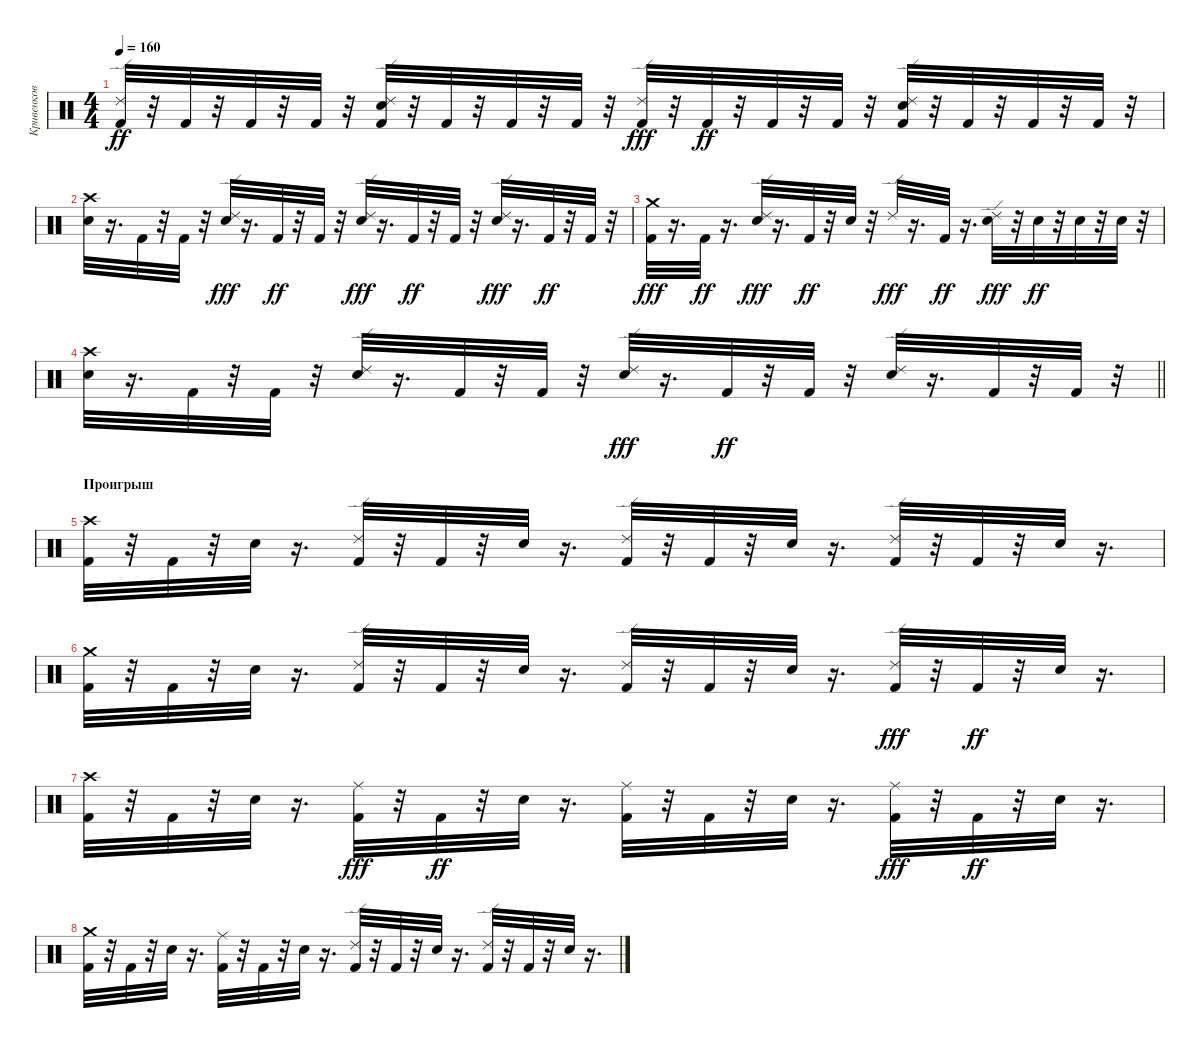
\track ("Кривенков" "Кривенков") {instrument percussion}
\staff {score}
\articulation defaults
\ts (4 4)
\tempo 160
\clef neutral
\ks c
("Ride (edge) 2" "Kick (hit) 2").32{dy ff} r.32 "Kick (hit) 2".32 r.32 "Kick (hit) 2".32 r.32 "Kick (hit) 2".32 r.32 ("Kick (hit) 2" "Ride (edge) 2" "Electric Snare (hit)").32 r.32 "Kick (hit) 2".32 r.32 "Kick (hit) 2".32 r.32 "Kick (hit) 2".32 r.32 ("Kick (hit) 2" "Ride (edge) 2").32{dy fff} r.32 "Kick (hit) 2".32{dy ff} r.32 "Kick (hit) 2".32 r.32 "Kick (hit) 2".32 r.32 ("Kick (hit) 2" "Ride (edge) 2" "Electric Snare (hit)").32 r.32 "Kick (hit) 2".32 r.32 "Kick (hit) 2".32 r.32 "Kick (hit) 2".32 r.32 |
("Crash high (hit)" "Electric Snare (hit)").32 r.16{d} "Kick (hit) 2".32 r.32 "Kick (hit) 2".32 r.32 ("Electric Snare (hit)" "Ride (edge) 2").32{dy fff} r.16{d} "Kick (hit) 2".32{dy ff} r.32 "Kick (hit) 2".32 r.32 ("Electric Snare (hit)" "Ride (edge) 2").32{dy fff} r.16{d} "Kick (hit) 2".32{dy ff} r.32 "Kick (hit) 2".32 r.32 ("Electric Snare (hit)" "Ride (edge) 2").32{dy fff} r.16{d} "Kick (hit) 2".32{dy ff} r.32 "Kick (hit) 2".32 r.32 |
("Crash medium (hit)" "Kick (hit) 2").32{dy fff} r.16{d} "Kick (hit) 2".32{dy ff} r.16{d} ("Electric Snare (hit)" "Ride (edge) 2").32{dy fff} r.16{d} "Kick (hit) 2".32{dy ff} r.32 "Electric Snare (hit)".32 r.32 "Ride (edge) 2".32{dy fff} r.16{d} "Kick (hit) 2".32{dy ff} r.16{d} ("Electric Snare (hit)" "Ride (edge) 2").32{dy fff} r.32 "Electric Snare (hit)".32{dy ff} r.32 "Electric Snare (hit)".32 r.32 "Electric Snare (hit)".32 r.32 |
\barLineRight lightlight
("Electric Snare (hit)" "Crash high (hit)").32 r.16{d} "Kick (hit) 2".32 r.32 "Kick (hit) 2".32 r.32 ("Ride (edge) 2" "Electric Snare (hit)").32 r.16{d} "Kick (hit) 2".32 r.32 "Kick (hit) 2".32 r.32 ("Electric Snare (hit)" "Ride (edge) 2").32{dy fff} r.16{d} "Kick (hit) 2".32{dy ff} r.32 "Kick (hit) 2".32 r.32 ("Ride (edge) 2" "Electric Snare (hit)").32 r.16{d} "Kick (hit) 2".32 r.32 "Kick (hit) 2".32 r.32 |
\section ("" "Проигрыш")
("Crash high (hit)" "Kick (hit) 2").32 r.32 "Kick (hit) 2".32 r.32 "Electric Snare (hit)".32 r.16{d} ("Ride (edge) 2" "Kick (hit) 2").32 r.32 "Kick (hit) 2".32 r.32 "Electric Snare (hit)".32 r.16{d} ("Ride (edge) 2" "Kick (hit) 2").32 r.32 "Kick (hit) 2".32 r.32 "Electric Snare (hit)".32 r.16{d} ("Ride (edge) 2" "Kick (hit) 2").32 r.32 "Kick (hit) 2".32 r.32 "Electric Snare (hit)".32 r.16{d} |
("Kick (hit) 2" "Crash medium (hit)").32 r.32 "Kick (hit) 2".32 r.32 "Electric Snare (hit)".32 r.16{d} ("Ride (edge) 2" "Kick (hit) 2").32 r.32 "Kick (hit) 2".32 r.32 "Electric Snare (hit)".32 r.16{d} ("Ride (edge) 2" "Kick (hit) 2").32 r.32 "Kick (hit) 2".32 r.32 "Electric Snare (hit)".32 r.16{d} ("Kick (hit) 2" "Ride (edge) 2").32{dy fff} r.32 "Kick (hit) 2".32{dy ff} r.32 "Electric Snare (hit)".32 r.16{d} |
("Crash high (hit)" "Kick (hit) 2").32 r.32 "Kick (hit) 2".32 r.32 "Electric Snare (hit)".32 r.16{d} ("Kick (hit) 2" "Ride (middle)").32{dy fff} r.32 "Kick (hit) 2".32{dy ff} r.32 "Electric Snare (hit)".32 r.16{d} ("Ride (middle)" "Kick (hit) 2").32 r.32 "Kick (hit) 2".32 r.32 "Electric Snare (hit)".32 r.16{d} ("Kick (hit) 2" "Ride (middle)").32{dy fff} r.32 "Kick (hit) 2".32{dy ff} r.32 "Electric Snare (hit)".32 r.16{d} |
("Kick (hit) 2" "Crash medium (hit)").32 r.32 "Kick (hit) 2".32 r.32 "Electric Snare (hit)".32 r.16{d} ("Ride (middle)" "Kick (hit) 2").32 r.32 "Kick (hit) 2".32 r.32 "Electric Snare (hit)".32 r.16{d} ("Ride (edge) 2" "Kick (hit) 2").32 r.32 "Kick (hit) 2".32 r.32 "Electric Snare (hit)".32 r.16{d} ("Ride (edge) 2" "Kick (hit) 2").32 r.32 "Kick (hit) 2".32 r.32 "Electric Snare (hit)".32 r.16{d}
